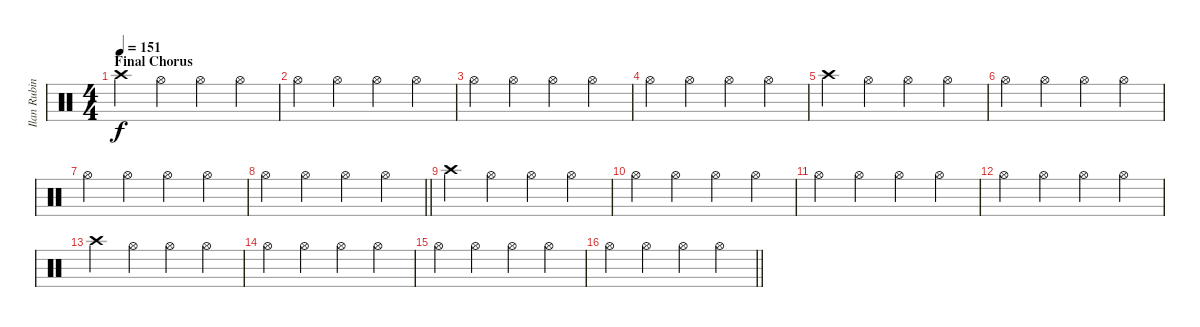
\track ("Ilan Rubin [Drums]" "Ilan Rubin") {instrument percussion}
\staff {score}
\articulation defaults
\ts (4 4)
\section ("" "Final Chorus")
\tempo 151
\clef neutral
\ks c "Crash high (hit)".4{dy f} "Hi-Hat (open)".4 "Hi-Hat (open)".4 "Hi-Hat (open)".4
|
"Hi-Hat (open)".4 "Hi-Hat (open)".4 "Hi-Hat (open)".4 "Hi-Hat (open)".4 |
"Hi-Hat (open)".4 "Hi-Hat (open)".4 "Hi-Hat (open)".4 "Hi-Hat (open)".4 |
"Hi-Hat (open)".4 "Hi-Hat (open)".4 "Hi-Hat (open)".4 "Hi-Hat (open)".4 |
"Crash high (hit)".4 "Hi-Hat (open)".4 "Hi-Hat (open)".4 "Hi-Hat (open)".4 |
"Hi-Hat (open)".4 "Hi-Hat (open)".4 "Hi-Hat (open)".4 "Hi-Hat (open)".4 |
"Hi-Hat (open)".4 "Hi-Hat (open)".4 "Hi-Hat (open)".4 "Hi-Hat (open)".4 |
\barLineRight lightlight "Hi-Hat (open)".4 "Hi-Hat (open)".4 "Hi-Hat (open)".4 "Hi-Hat (open)".4
|
"Crash high (hit)".4 "Hi-Hat (open)".4 "Hi-Hat (open)".4 "Hi-Hat (open)".4 |
"Hi-Hat (open)".4 "Hi-Hat (open)".4 "Hi-Hat (open)".4 "Hi-Hat (open)".4 |
"Hi-Hat (open)".4 "Hi-Hat (open)".4 "Hi-Hat (open)".4 "Hi-Hat (open)".4 |
"Hi-Hat (open)".4 "Hi-Hat (open)".4 "Hi-Hat (open)".4 "Hi-Hat (open)".4 |
"Crash high (hit)".4 "Hi-Hat (open)".4 "Hi-Hat (open)".4 "Hi-Hat (open)".4 |
"Hi-Hat (open)".4 "Hi-Hat (open)".4 "Hi-Hat (open)".4 "Hi-Hat (open)".4 |
"Hi-Hat (open)".4 "Hi-Hat (open)".4 "Hi-Hat (open)".4 "Hi-Hat (open)".4 |
\barLineRight lightlight "Hi-Hat (open)".4 "Hi-Hat (open)".4 "Hi-Hat (open)".4 "Hi-Hat (open)".4
